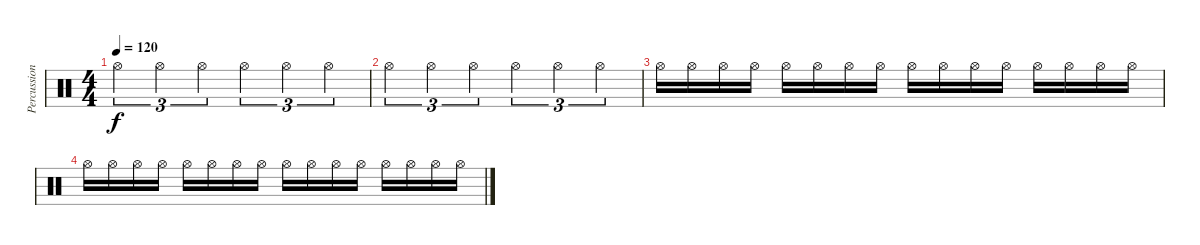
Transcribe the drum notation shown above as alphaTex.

\track ("Percussion" "Percussion") {instrument percussion}
\staff {score}
\articulation defaults
\ts (4 4)
\tempo 120
\clef neutral
\ks c "Hi-Hat (open)".4{tu (3 2) dy f} "Hi-Hat (open)".4{tu (3 2)} "Hi-Hat (open)".4{tu (3 2)} "Hi-Hat (open)".4{tu (3 2)} "Hi-Hat (open)".4{tu (3 2)} "Hi-Hat (open)".4{tu (3 2)}
|
"Hi-Hat (open)".4{tu (3 2)} "Hi-Hat (open)".4{tu (3 2)} "Hi-Hat (open)".4{tu (3 2)} "Hi-Hat (open)".4{tu (3 2)} "Hi-Hat (open)".4{tu (3 2)} "Hi-Hat (open)".4{tu (3 2)} |
"Hi-Hat (open)".16 "Hi-Hat (open)".16 "Hi-Hat (open)".16 "Hi-Hat (open)".16 "Hi-Hat (open)".16 "Hi-Hat (open)".16 "Hi-Hat (open)".16 "Hi-Hat (open)".16 "Hi-Hat (open)".16 "Hi-Hat (open)".16 "Hi-Hat (open)".16 "Hi-Hat (open)".16 "Hi-Hat (open)".16 "Hi-Hat (open)".16 "Hi-Hat (open)".16 "Hi-Hat (open)".16 |
"Hi-Hat (open)".16 "Hi-Hat (open)".16 "Hi-Hat (open)".16 "Hi-Hat (open)".16 "Hi-Hat (open)".16 "Hi-Hat (open)".16 "Hi-Hat (open)".16 "Hi-Hat (open)".16 "Hi-Hat (open)".16 "Hi-Hat (open)".16 "Hi-Hat (open)".16 "Hi-Hat (open)".16 "Hi-Hat (open)".16 "Hi-Hat (open)".16 "Hi-Hat (open)".16 "Hi-Hat (open)".16
